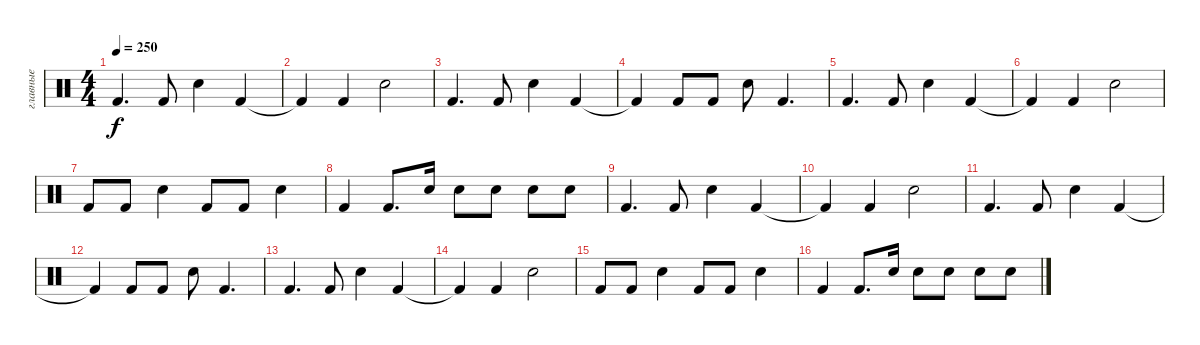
\track ("главные" "главные") {instrument percussion}
\staff {score}
\articulation defaults
\ts (4 4)
\tempo 250
\clef neutral
\ks c "Kick (hit) 2".4{d dy f} "Kick (hit) 2".8 "Electric Snare (hit)".4 "Kick (hit) 2".4
|
"Kick (hit) 2"{t}.4 "Kick (hit) 2".4 "Electric Snare (hit)".2 |
"Kick (hit) 2".4{d} "Kick (hit) 2".8 "Electric Snare (hit)".4 "Kick (hit) 2".4 |
"Kick (hit) 2"{t}.4 "Kick (hit) 2".8 "Kick (hit) 2".8 "Electric Snare (hit)".8 "Kick (hit) 2".4{d} |
"Kick (hit) 2".4{d} "Kick (hit) 2".8 "Electric Snare (hit)".4 "Kick (hit) 2".4 |
"Kick (hit) 2"{t}.4 "Kick (hit) 2".4 "Electric Snare (hit)".2 |
"Kick (hit) 2".8 "Kick (hit) 2".8 "Electric Snare (hit)".4 "Kick (hit) 2".8 "Kick (hit) 2".8 "Electric Snare (hit)".4 |
"Kick (hit) 2".4 "Kick (hit) 2".8{d} "Electric Snare (hit)".16 "Electric Snare (hit)".8 "Electric Snare (hit)".8 "Electric Snare (hit)".8 "Electric Snare (hit)".8 |
"Kick (hit) 2".4{d} "Kick (hit) 2".8 "Electric Snare (hit)".4 "Kick (hit) 2".4 |
"Kick (hit) 2"{t}.4 "Kick (hit) 2".4 "Electric Snare (hit)".2 |
"Kick (hit) 2".4{d} "Kick (hit) 2".8 "Electric Snare (hit)".4 "Kick (hit) 2".4 |
"Kick (hit) 2"{t}.4 "Kick (hit) 2".8 "Kick (hit) 2".8 "Electric Snare (hit)".8 "Kick (hit) 2".4{d} |
"Kick (hit) 2".4{d} "Kick (hit) 2".8 "Electric Snare (hit)".4 "Kick (hit) 2".4 |
"Kick (hit) 2"{t}.4 "Kick (hit) 2".4 "Electric Snare (hit)".2 |
"Kick (hit) 2".8 "Kick (hit) 2".8 "Electric Snare (hit)".4 "Kick (hit) 2".8 "Kick (hit) 2".8 "Electric Snare (hit)".4 |
"Kick (hit) 2".4 "Kick (hit) 2".8{d} "Electric Snare (hit)".16 "Electric Snare (hit)".8 "Electric Snare (hit)".8 "Electric Snare (hit)".8 "Electric Snare (hit)".8
